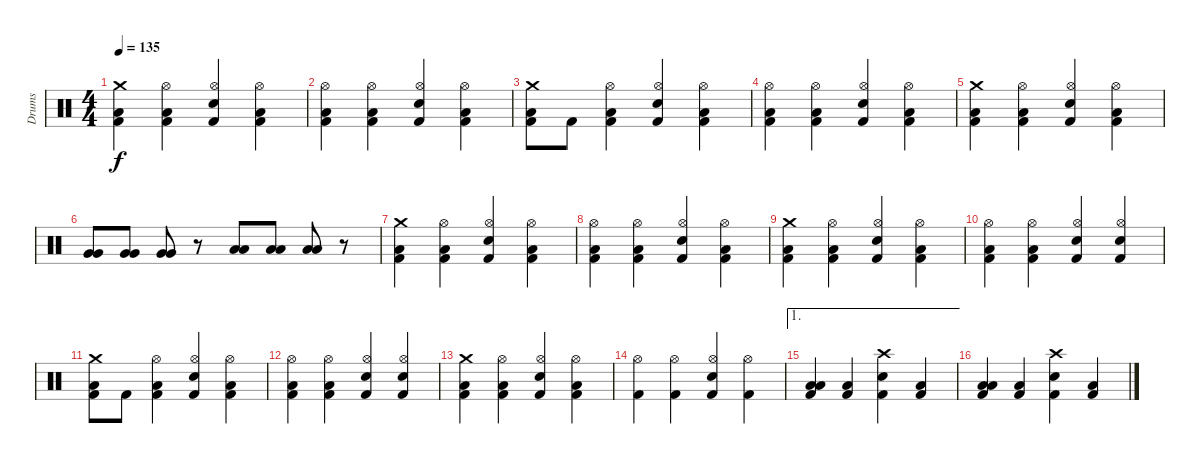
\track ("Drums" "Drums") {instrument percussion}
\staff {score}
\articulation defaults
\ts (4 4)
\tempo 135
\clef neutral
\ks c
("Crash medium (hit)" "Low Floor Tom (hit)" "Kick (hit) 2").4{dy f} ("Hi-Hat (open)" "Low Floor Tom (hit)" "Kick (hit) 2").4 ("Hi-Hat (open)" "Electric Snare (hit)" "Kick (hit) 2").4 ("Hi-Hat (open)" "Low Floor Tom (hit)" "Kick (hit) 2").4 |
("Hi-Hat (open)" "Low Floor Tom (hit)" "Kick (hit) 2").4 ("Hi-Hat (open)" "Low Floor Tom (hit)" "Kick (hit) 2").4 ("Hi-Hat (open)" "Electric Snare (hit)" "Kick (hit) 2").4 ("Hi-Hat (open)" "Low Floor Tom (hit)" "Kick (hit) 2").4 |
("Crash medium (hit)" "Low Floor Tom (hit)" "Kick (hit) 2").8 "Kick (hit) 2".8 ("Hi-Hat (open)" "Low Floor Tom (hit)" "Kick (hit) 2").4 ("Hi-Hat (open)" "Electric Snare (hit)" "Kick (hit) 2").4 ("Hi-Hat (open)" "Low Floor Tom (hit)" "Kick (hit) 2").4 |
("Hi-Hat (open)" "Low Floor Tom (hit)" "Kick (hit) 2").4 ("Hi-Hat (open)" "Low Floor Tom (hit)" "Kick (hit) 2").4 ("Hi-Hat (open)" "Electric Snare (hit)" "Kick (hit) 2").4 ("Hi-Hat (open)" "Low Floor Tom (hit)" "Kick (hit) 2").4 |
("Crash medium (hit)" "Low Floor Tom (hit)" "Kick (hit) 2").4 ("Hi-Hat (open)" "Low Floor Tom (hit)" "Kick (hit) 2").4 ("Hi-Hat (open)" "Electric Snare (hit)" "Kick (hit) 2").4 ("Hi-Hat (open)" "Low Floor Tom (hit)" "Kick (hit) 2").4 |
("Very Low Tom (hit)" "Very Low Tom (hit)").8 ("Very Low Tom (hit)" "Very Low Tom (hit)").8 ("Very Low Tom (hit)" "Very Low Tom (hit)").8 r.8 ("Low Floor Tom (hit)" "Low Floor Tom (hit)").8 ("Low Floor Tom (hit)" "Low Floor Tom (hit)").8 ("Low Floor Tom (hit)" "Low Floor Tom (hit)").8 r.8 |
("Crash medium (hit)" "Low Floor Tom (hit)" "Kick (hit) 2").4 ("Hi-Hat (open)" "Low Floor Tom (hit)" "Kick (hit) 2").4 ("Hi-Hat (open)" "Electric Snare (hit)" "Kick (hit) 2").4 ("Hi-Hat (open)" "Low Floor Tom (hit)" "Kick (hit) 2").4 |
("Hi-Hat (open)" "Low Floor Tom (hit)" "Kick (hit) 2").4 ("Hi-Hat (open)" "Low Floor Tom (hit)" "Kick (hit) 2").4 ("Hi-Hat (open)" "Electric Snare (hit)" "Kick (hit) 2").4 ("Hi-Hat (open)" "Low Floor Tom (hit)" "Kick (hit) 2").4 |
("Crash medium (hit)" "Low Floor Tom (hit)" "Kick (hit) 2").4 ("Hi-Hat (open)" "Low Floor Tom (hit)" "Kick (hit) 2").4 ("Hi-Hat (open)" "Electric Snare (hit)" "Kick (hit) 2").4 ("Hi-Hat (open)" "Low Floor Tom (hit)" "Kick (hit) 2").4 |
("Hi-Hat (open)" "Low Floor Tom (hit)" "Kick (hit) 2").4 ("Hi-Hat (open)" "Low Floor Tom (hit)" "Kick (hit) 2").4 ("Hi-Hat (open)" "Electric Snare (hit)" "Kick (hit) 2").4 ("Hi-Hat (open)" "Electric Snare (hit)" "Kick (hit) 2").4 |
("Crash medium (hit)" "Low Floor Tom (hit)" "Kick (hit) 2").8 "Kick (hit) 2".8 ("Hi-Hat (open)" "Low Floor Tom (hit)" "Kick (hit) 2").4 ("Hi-Hat (open)" "Electric Snare (hit)" "Kick (hit) 2").4 ("Hi-Hat (open)" "Low Floor Tom (hit)" "Kick (hit) 2").4 |
("Hi-Hat (open)" "Low Floor Tom (hit)" "Kick (hit) 2").4 ("Hi-Hat (open)" "Low Floor Tom (hit)" "Kick (hit) 2").4 ("Hi-Hat (open)" "Electric Snare (hit)" "Kick (hit) 2").4 ("Hi-Hat (open)" "Electric Snare (hit)" "Kick (hit) 2").4 |
("Crash medium (hit)" "Low Floor Tom (hit)" "Kick (hit) 2").4 ("Hi-Hat (open)" "Low Floor Tom (hit)" "Kick (hit) 2").4 ("Hi-Hat (open)" "Electric Snare (hit)" "Kick (hit) 2").4 ("Hi-Hat (open)" "Low Floor Tom (hit)" "Kick (hit) 2").4 |
("Hi-Hat (open)" "Kick (hit) 2").4 ("Hi-Hat (open)" "Kick (hit) 2").4 ("Hi-Hat (open)" "Electric Snare (hit)" "Kick (hit) 2").4 ("Hi-Hat (open)" "Kick (hit) 2").4 |
\ae 1
("Low Floor Tom (hit)" "Low Floor Tom (hit)" "Kick (hit) 2").4 ("Low Floor Tom (hit)" "Kick (hit) 2").4 ("Crash high (hit)" "Electric Snare (hit)" "Kick (hit) 2").4 ("Low Floor Tom (hit)" "Kick (hit) 2").4 |
("Low Floor Tom (hit)" "Low Floor Tom (hit)" "Kick (hit) 2").4 ("Low Floor Tom (hit)" "Kick (hit) 2").4 ("Crash high (hit)" "Electric Snare (hit)" "Kick (hit) 2").4 ("Low Floor Tom (hit)" "Kick (hit) 2").4
